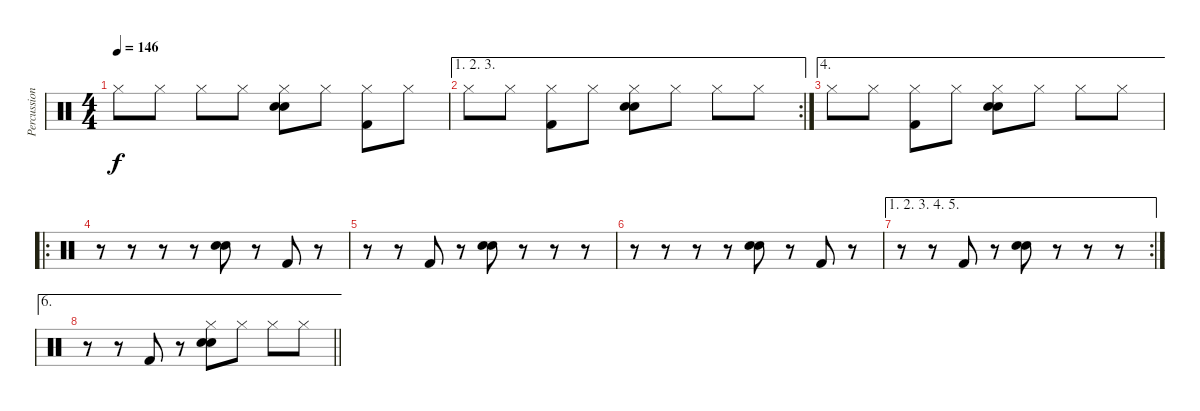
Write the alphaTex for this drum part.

\track ("Percussion" "Percussion") {instrument percussion}
\staff {score}
\articulation defaults
\ts (4 4)
\tempo 146
\clef neutral
\ks c "Hi-Hat (closed)".8{dy f} "Hi-Hat (closed)".8 "Hi-Hat (closed)".8 "Hi-Hat (closed)".8
("Hi-Hat (closed)" "Electric Snare (hit)" "Hand Clap (hit)").8 "Hi-Hat (closed)".8 ("Hi-Hat (closed)" "Kick (hit) 2").8 "Hi-Hat (closed)".8 |
\ae (1 2 3)
\rc 2 "Hi-Hat (closed)".8 "Hi-Hat (closed)".8
("Hi-Hat (closed)" "Kick (hit) 2").8 "Hi-Hat (closed)".8 ("Hi-Hat (closed)" "Electric Snare (hit)" "Hand Clap (hit)").8 "Hi-Hat (closed)".8 "Hi-Hat (closed)".8 "Hi-Hat (closed)".8 |
\ae 4 "Hi-Hat (closed)".8 "Hi-Hat (closed)".8
("Hi-Hat (closed)" "Kick (hit) 2").8 "Hi-Hat (closed)".8 ("Hi-Hat (closed)" "Electric Snare (hit)" "Hand Clap (hit)").8 "Hi-Hat (closed)".8 "Hi-Hat (closed)".8 "Hi-Hat (closed)".8 |
\ro
r.8 r.8 r.8 r.8 ("Electric Snare (hit)" "Hand Clap (hit)").8 r.8 "Kick (hit) 2".8 r.8 |
r.8 r.8 "Kick (hit) 2".8 r.8 ("Electric Snare (hit)" "Hand Clap (hit)").8 r.8 r.8 r.8 |
r.8 r.8 r.8 r.8 ("Electric Snare (hit)" "Hand Clap (hit)").8 r.8 "Kick (hit) 2".8 r.8 |
\ae (1 2 3 4 5)
\rc 2
r.8 r.8 "Kick (hit) 2".8 r.8 ("Electric Snare (hit)" "Hand Clap (hit)").8 r.8 r.8 r.8 |
\ae 6
\barLineRight lightlight
r.8 r.8 "Kick (hit) 2".8 r.8 ("Hi-Hat (closed)" "Electric Snare (hit)" "Hand Clap (hit)").8 "Hi-Hat (closed)".8 "Hi-Hat (closed)".8 "Hi-Hat (closed)".8
